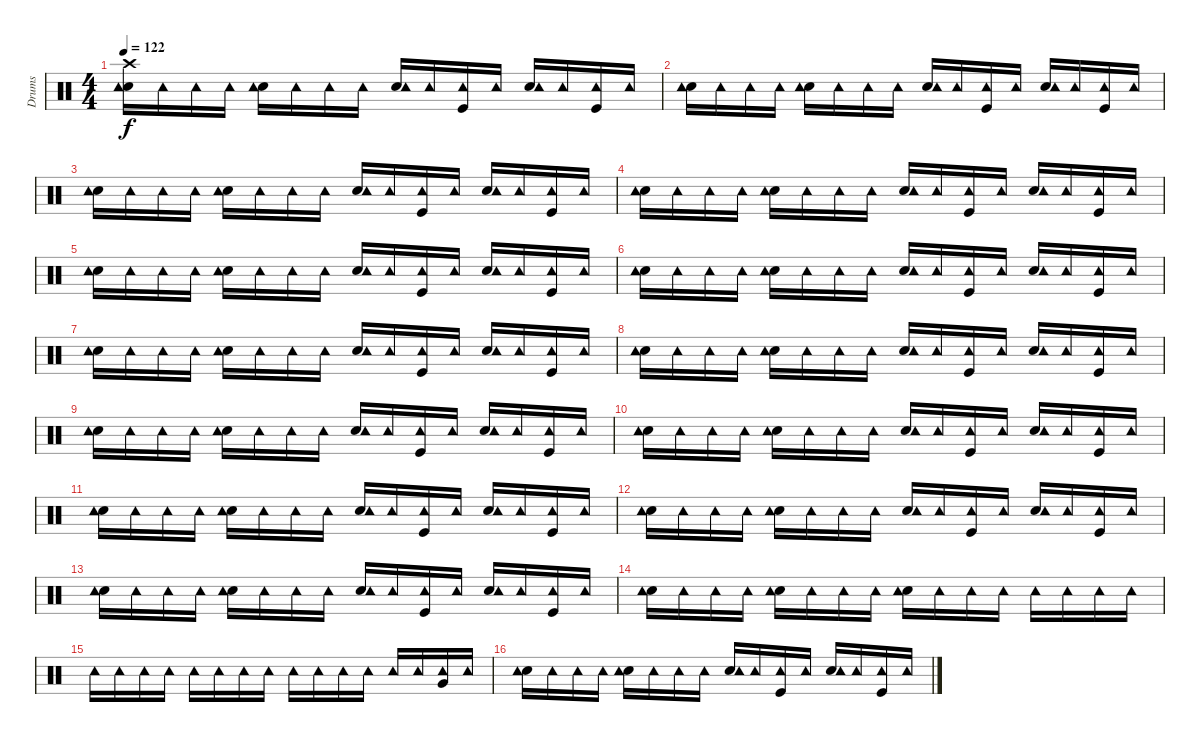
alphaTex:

\track ("Drums               " "Drums     ") {instrument percussion}
\staff {score}
\articulation defaults
\ts (4 4)
\tempo 122
\clef neutral
\ks c
("Electric Snare (hit)" "Crash high (hit)" "Tambourine (hit)").16{dy f} "Tambourine (hit)".16 "Tambourine (hit)".16 "Tambourine (hit)".16 ("Electric Snare (hit)" "Tambourine (hit)").16 "Tambourine (hit)".16 "Tambourine (hit)".16 "Tambourine (hit)".16 ("Electric Snare (hit)" "Tambourine (hit)").16 "Tambourine (hit)".16 ("Kick (hit)" "Tambourine (hit)").16 "Tambourine (hit)".16 ("Electric Snare (hit)" "Tambourine (hit)").16 "Tambourine (hit)".16 ("Kick (hit)" "Tambourine (hit)").16 "Tambourine (hit)".16 |
("Electric Snare (hit)" "Tambourine (hit)").16 "Tambourine (hit)".16 "Tambourine (hit)".16 "Tambourine (hit)".16 ("Electric Snare (hit)" "Tambourine (hit)").16 "Tambourine (hit)".16 "Tambourine (hit)".16 "Tambourine (hit)".16 ("Electric Snare (hit)" "Tambourine (hit)").16 "Tambourine (hit)".16 ("Kick (hit)" "Tambourine (hit)").16 "Tambourine (hit)".16 ("Electric Snare (hit)" "Tambourine (hit)").16 "Tambourine (hit)".16 ("Kick (hit)" "Tambourine (hit)").16 "Tambourine (hit)".16 |
("Electric Snare (hit)" "Tambourine (hit)").16 "Tambourine (hit)".16 "Tambourine (hit)".16 "Tambourine (hit)".16 ("Electric Snare (hit)" "Tambourine (hit)").16 "Tambourine (hit)".16 "Tambourine (hit)".16 "Tambourine (hit)".16 ("Electric Snare (hit)" "Tambourine (hit)").16 "Tambourine (hit)".16 ("Kick (hit)" "Tambourine (hit)").16 "Tambourine (hit)".16 ("Electric Snare (hit)" "Tambourine (hit)").16 "Tambourine (hit)".16 ("Kick (hit)" "Tambourine (hit)").16 "Tambourine (hit)".16 |
("Electric Snare (hit)" "Tambourine (hit)").16 "Tambourine (hit)".16 "Tambourine (hit)".16 "Tambourine (hit)".16 ("Electric Snare (hit)" "Tambourine (hit)").16 "Tambourine (hit)".16 "Tambourine (hit)".16 "Tambourine (hit)".16 ("Electric Snare (hit)" "Tambourine (hit)").16 "Tambourine (hit)".16 ("Kick (hit)" "Tambourine (hit)").16 "Tambourine (hit)".16 ("Electric Snare (hit)" "Tambourine (hit)").16 "Tambourine (hit)".16 ("Kick (hit)" "Tambourine (hit)").16 "Tambourine (hit)".16 |
("Electric Snare (hit)" "Tambourine (hit)").16 "Tambourine (hit)".16 "Tambourine (hit)".16 "Tambourine (hit)".16 ("Electric Snare (hit)" "Tambourine (hit)").16 "Tambourine (hit)".16 "Tambourine (hit)".16 "Tambourine (hit)".16 ("Electric Snare (hit)" "Tambourine (hit)").16 "Tambourine (hit)".16 ("Kick (hit)" "Tambourine (hit)").16 "Tambourine (hit)".16 ("Electric Snare (hit)" "Tambourine (hit)").16 "Tambourine (hit)".16 ("Kick (hit)" "Tambourine (hit)").16 "Tambourine (hit)".16 |
("Electric Snare (hit)" "Tambourine (hit)").16 "Tambourine (hit)".16 "Tambourine (hit)".16 "Tambourine (hit)".16 ("Electric Snare (hit)" "Tambourine (hit)").16 "Tambourine (hit)".16 "Tambourine (hit)".16 "Tambourine (hit)".16 ("Electric Snare (hit)" "Tambourine (hit)").16 "Tambourine (hit)".16 ("Kick (hit)" "Tambourine (hit)").16 "Tambourine (hit)".16 ("Electric Snare (hit)" "Tambourine (hit)").16 "Tambourine (hit)".16 ("Kick (hit)" "Tambourine (hit)").16 "Tambourine (hit)".16 |
("Electric Snare (hit)" "Tambourine (hit)").16 "Tambourine (hit)".16 "Tambourine (hit)".16 "Tambourine (hit)".16 ("Electric Snare (hit)" "Tambourine (hit)").16 "Tambourine (hit)".16 "Tambourine (hit)".16 "Tambourine (hit)".16 ("Electric Snare (hit)" "Tambourine (hit)").16 "Tambourine (hit)".16 ("Kick (hit)" "Tambourine (hit)").16 "Tambourine (hit)".16 ("Electric Snare (hit)" "Tambourine (hit)").16 "Tambourine (hit)".16 ("Kick (hit)" "Tambourine (hit)").16 "Tambourine (hit)".16 |
("Electric Snare (hit)" "Tambourine (hit)").16 "Tambourine (hit)".16 "Tambourine (hit)".16 "Tambourine (hit)".16 ("Electric Snare (hit)" "Tambourine (hit)").16 "Tambourine (hit)".16 "Tambourine (hit)".16 "Tambourine (hit)".16 ("Electric Snare (hit)" "Tambourine (hit)").16 "Tambourine (hit)".16 ("Kick (hit)" "Tambourine (hit)").16 "Tambourine (hit)".16 ("Electric Snare (hit)" "Tambourine (hit)").16 "Tambourine (hit)".16 ("Kick (hit)" "Tambourine (hit)").16 "Tambourine (hit)".16 |
("Electric Snare (hit)" "Tambourine (hit)").16 "Tambourine (hit)".16 "Tambourine (hit)".16 "Tambourine (hit)".16 ("Electric Snare (hit)" "Tambourine (hit)").16 "Tambourine (hit)".16 "Tambourine (hit)".16 "Tambourine (hit)".16 ("Electric Snare (hit)" "Tambourine (hit)").16 "Tambourine (hit)".16 ("Kick (hit)" "Tambourine (hit)").16 "Tambourine (hit)".16 ("Electric Snare (hit)" "Tambourine (hit)").16 "Tambourine (hit)".16 ("Kick (hit)" "Tambourine (hit)").16 "Tambourine (hit)".16 |
("Electric Snare (hit)" "Tambourine (hit)").16 "Tambourine (hit)".16 "Tambourine (hit)".16 "Tambourine (hit)".16 ("Electric Snare (hit)" "Tambourine (hit)").16 "Tambourine (hit)".16 "Tambourine (hit)".16 "Tambourine (hit)".16 ("Electric Snare (hit)" "Tambourine (hit)").16 "Tambourine (hit)".16 ("Kick (hit)" "Tambourine (hit)").16 "Tambourine (hit)".16 ("Electric Snare (hit)" "Tambourine (hit)").16 "Tambourine (hit)".16 ("Kick (hit)" "Tambourine (hit)").16 "Tambourine (hit)".16 |
("Electric Snare (hit)" "Tambourine (hit)").16 "Tambourine (hit)".16 "Tambourine (hit)".16 "Tambourine (hit)".16 ("Electric Snare (hit)" "Tambourine (hit)").16 "Tambourine (hit)".16 "Tambourine (hit)".16 "Tambourine (hit)".16 ("Electric Snare (hit)" "Tambourine (hit)").16 "Tambourine (hit)".16 ("Kick (hit)" "Tambourine (hit)").16 "Tambourine (hit)".16 ("Electric Snare (hit)" "Tambourine (hit)").16 "Tambourine (hit)".16 ("Kick (hit)" "Tambourine (hit)").16 "Tambourine (hit)".16 |
("Electric Snare (hit)" "Tambourine (hit)").16 "Tambourine (hit)".16 "Tambourine (hit)".16 "Tambourine (hit)".16 ("Electric Snare (hit)" "Tambourine (hit)").16 "Tambourine (hit)".16 "Tambourine (hit)".16 "Tambourine (hit)".16 ("Electric Snare (hit)" "Tambourine (hit)").16 "Tambourine (hit)".16 ("Kick (hit)" "Tambourine (hit)").16 "Tambourine (hit)".16 ("Electric Snare (hit)" "Tambourine (hit)").16 "Tambourine (hit)".16 ("Kick (hit)" "Tambourine (hit)").16 "Tambourine (hit)".16 |
("Electric Snare (hit)" "Tambourine (hit)").16 "Tambourine (hit)".16 "Tambourine (hit)".16 "Tambourine (hit)".16 ("Electric Snare (hit)" "Tambourine (hit)").16 "Tambourine (hit)".16 "Tambourine (hit)".16 "Tambourine (hit)".16 ("Electric Snare (hit)" "Tambourine (hit)").16 "Tambourine (hit)".16 ("Kick (hit)" "Tambourine (hit)").16 "Tambourine (hit)".16 ("Electric Snare (hit)" "Tambourine (hit)").16 "Tambourine (hit)".16 ("Kick (hit)" "Tambourine (hit)").16 "Tambourine (hit)".16 |
("Electric Snare (hit)" "Tambourine (hit)").16 "Tambourine (hit)".16 "Tambourine (hit)".16 "Tambourine (hit)".16 ("Electric Snare (hit)" "Tambourine (hit)").16 "Tambourine (hit)".16 "Tambourine (hit)".16 "Tambourine (hit)".16 ("Electric Snare (hit)" "Tambourine (hit)").16 "Tambourine (hit)".16 "Tambourine (hit)".16 "Tambourine (hit)".16 "Tambourine (hit)".16 "Tambourine (hit)".16 "Tambourine (hit)".16 "Tambourine (hit)".16 |
"Tambourine (hit)".16 "Tambourine (hit)".16 "Tambourine (hit)".16 "Tambourine (hit)".16 "Tambourine (hit)".16 "Tambourine (hit)".16 "Tambourine (hit)".16 "Tambourine (hit)".16 "Tambourine (hit)".16 "Tambourine (hit)".16 "Tambourine (hit)".16 "Tambourine (hit)".16 "Tambourine (hit)".16 "Tambourine (hit)".16 ("Very Low Tom (hit)" "Tambourine (hit)").16 "Tambourine (hit)".16 |
("Electric Snare (hit)" "Tambourine (hit)").16 "Tambourine (hit)".16 "Tambourine (hit)".16 "Tambourine (hit)".16 ("Electric Snare (hit)" "Tambourine (hit)").16 "Tambourine (hit)".16 "Tambourine (hit)".16 "Tambourine (hit)".16 ("Electric Snare (hit)" "Tambourine (hit)").16 "Tambourine (hit)".16 ("Kick (hit)" "Tambourine (hit)").16 "Tambourine (hit)".16 ("Electric Snare (hit)" "Tambourine (hit)").16 "Tambourine (hit)".16 ("Kick (hit)" "Tambourine (hit)").16 "Tambourine (hit)".16
